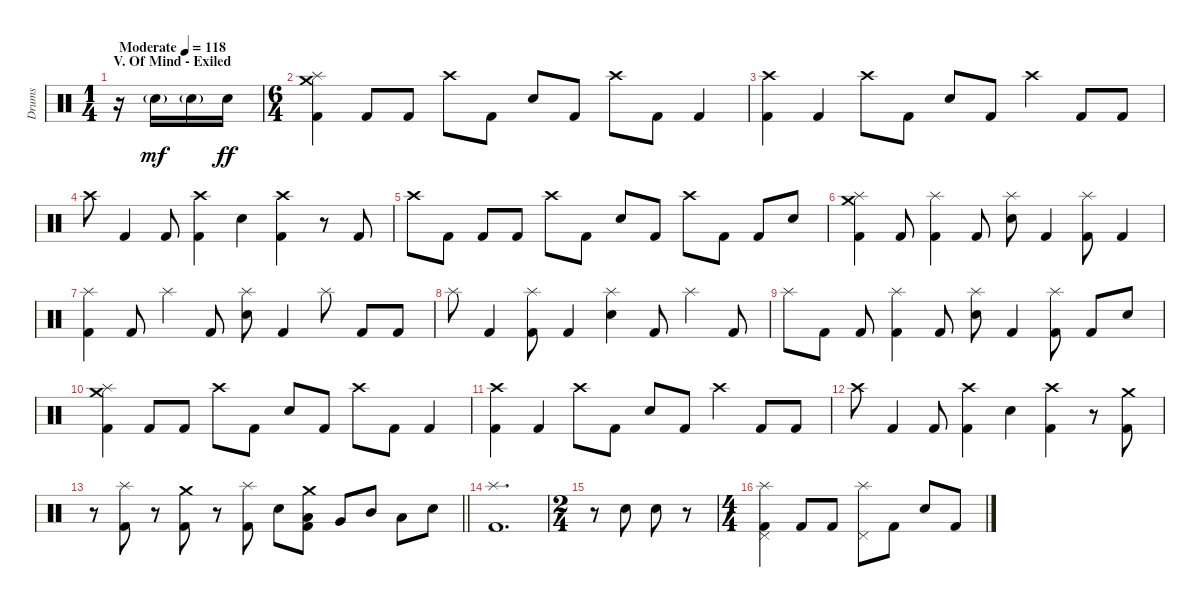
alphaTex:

\track ("Drums" "Drums") {instrument percussion}
\staff {score}
\articulation defaults
\ts (1 4)
\section ("" "V. Of Mind - Exiled")
\tempo (118 "Moderate")
\tempo 180
\tempo (118 "Moderate")
\clef neutral
\ks c
r.16{dy mf} "Electric Snare (hit)"{g}.16 "Electric Snare (hit)"{g}.16 "Electric Snare (hit)".16{dy ff} |
\ts (6 4)
("Crash medium (hit)" "Splash (hit)" "Kick (hit) 2").4 "Kick (hit) 2".8 "Kick (hit) 2".8 "Crash high (hit)".8 "Kick (hit) 2".8 "Electric Snare (hit)".8 "Kick (hit) 2".8 "Crash high (hit)".8 "Kick (hit) 2".8 "Kick (hit) 2".4 |
("Crash high (hit)" "Kick (hit) 2").4 "Kick (hit) 2".4 "Crash high (hit)".8 "Kick (hit) 2".8 "Electric Snare (hit)".8 "Kick (hit) 2".8 "Crash high (hit)".4 "Kick (hit) 2".8 "Kick (hit) 2".8 |
"Crash high (hit)".8 "Kick (hit) 2".4 "Kick (hit) 2".8 ("Crash high (hit)" "Kick (hit) 2").4 "Electric Snare (hit)".4 ("Crash high (hit)" "Kick (hit) 2").4 r.8 "Kick (hit) 2".8 |
"Crash high (hit)".8 "Kick (hit) 2".8 "Kick (hit) 2".8 "Kick (hit) 2".8 "Crash high (hit)".8 "Kick (hit) 2".8 "Electric Snare (hit)".8 "Kick (hit) 2".8 "Crash high (hit)".8 "Kick (hit) 2".8 "Kick (hit) 2".8 "Electric Snare (hit)".8 |
("Crash medium (hit)" "Splash (hit)" "Kick (hit) 2").4 "Kick (hit) 2".8 ("Splash (hit)" "Kick (hit) 2").4 "Kick (hit) 2".8 ("Splash (hit)" "Electric Snare (hit)").8 "Kick (hit) 2".4 ("Splash (hit)" "Kick (hit) 2").8 "Kick (hit) 2".4 |
("Splash (hit)" "Kick (hit) 2").4 "Kick (hit) 2".8 "Splash (hit)".4 "Kick (hit) 2".8 ("Splash (hit)" "Electric Snare (hit)").8 "Kick (hit) 2".4 "Splash (hit)".8 "Kick (hit) 2".8 "Kick (hit) 2".8 |
"Splash (hit)".8 "Kick (hit) 2".4 ("Splash (hit)" "Kick (hit) 2").8 "Kick (hit) 2".4 ("Splash (hit)" "Electric Snare (hit)").4 "Kick (hit) 2".8 "Splash (hit)".4 "Kick (hit) 2".8 |
"Splash (hit)".8 "Kick (hit) 2".8 "Kick (hit) 2".8 ("Splash (hit)" "Kick (hit) 2").4 "Kick (hit) 2".8 ("Splash (hit)" "Electric Snare (hit)").8 "Kick (hit) 2".4 ("Splash (hit)" "Kick (hit) 2").8 "Kick (hit) 2".8 "Electric Snare (hit)".8 |
("Crash medium (hit)" "Splash (hit)" "Kick (hit) 2").4 "Kick (hit) 2".8 "Kick (hit) 2".8 "Crash high (hit)".8 "Kick (hit) 2".8 "Electric Snare (hit)".8 "Kick (hit) 2".8 "Crash high (hit)".8 "Kick (hit) 2".8 "Kick (hit) 2".4 |
("Crash high (hit)" "Kick (hit) 2").4 "Kick (hit) 2".4 "Crash high (hit)".8 "Kick (hit) 2".8 "Electric Snare (hit)".8 "Kick (hit) 2".8 "Crash high (hit)".4 "Kick (hit) 2".8 "Kick (hit) 2".8 |
"Crash high (hit)".8 "Kick (hit) 2".4 "Kick (hit) 2".8 ("Crash high (hit)" "Kick (hit) 2").4 "Electric Snare (hit)".4 ("Crash high (hit)" "Kick (hit) 2").4 r.8 ("Crash medium (hit)" "Kick (hit) 2").8 |
\barLineRight lightlight
r.8 ("Splash (hit)" "Kick (hit) 2").8 r.8 ("Crash medium (hit)" "Kick (hit) 2").8 r.8 ("Splash (hit)" "Kick (hit) 2").8 "Electric Snare (hit)".8 ("Crash medium (hit)" "Low Tom (hit)" "Kick (hit) 2").8 "Very Low Tom (hit)".8 "Mid Tom (hit)".8 "Low Floor Tom (hit)".8 "Electric Snare (hit)".8 |
\section ("" "")
("Splash (hit)" "Kick (hit) 2").1{d} |
\ts (2 4)
r.8 "Electric Snare (hit)".8 "Electric Snare (hit)".8 r.8 |
\ts (4 4)
\section ("" "")
("Splash (hit)" "Pedal Hi-Hat (hit)" "Kick (hit) 2").4 "Kick (hit) 2".8 "Kick (hit) 2".8 ("Splash (hit)" "Pedal Hi-Hat (hit)").8 "Kick (hit) 2".8 "Electric Snare (hit)".8 "Kick (hit) 2".8
